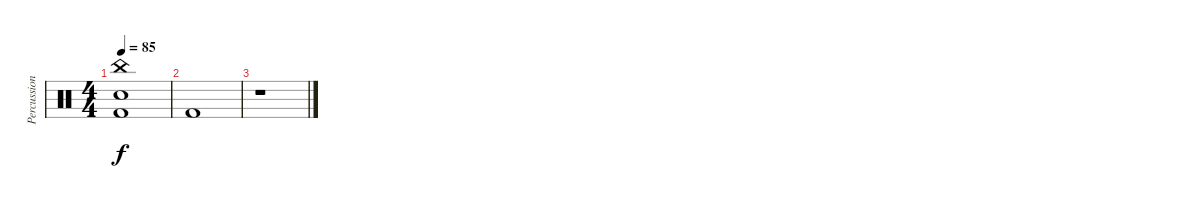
\track ("Percussions" "Percussion") {instrument percussion}
\staff {score}
\articulation defaults
\ts (4 4)
\tempo 85
\clef neutral
\ks c
("China (hit)" "Snare (hit) 2" "Kick (hit) 2").1{dy f} |
"Kick (hit) 2".1 |
r.1
